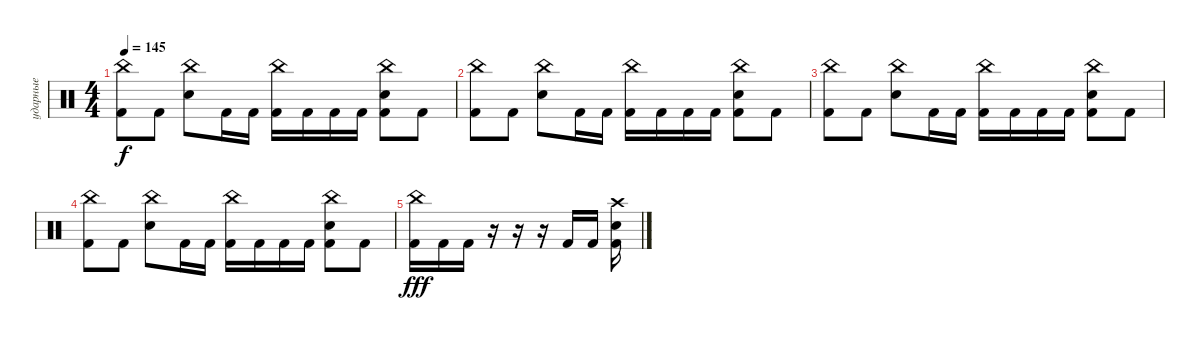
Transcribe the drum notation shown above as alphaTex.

\track (" ударные" " ударные") {instrument percussion}
\staff {score}
\articulation defaults
\ts (4 4)
\tempo 145
\clef neutral
\ks c
("China (hit)" "Kick (hit) 2").8{dy f} "Kick (hit) 2".8 ("China (hit)" "Electric Snare (hit)").8 "Kick (hit) 2".16 "Kick (hit) 2".16 ("China (hit)" "Kick (hit) 2").16 "Kick (hit) 2".16 "Kick (hit) 2".16 "Kick (hit) 2".16 ("China (hit)" "Electric Snare (hit)" "Kick (hit) 2").8 "Kick (hit) 2".8 |
("China (hit)" "Kick (hit) 2").8 "Kick (hit) 2".8 ("China (hit)" "Electric Snare (hit)").8 "Kick (hit) 2".16 "Kick (hit) 2".16 ("China (hit)" "Kick (hit) 2").16 "Kick (hit) 2".16 "Kick (hit) 2".16 "Kick (hit) 2".16 ("China (hit)" "Electric Snare (hit)" "Kick (hit) 2").8 "Kick (hit) 2".8 |
("China (hit)" "Kick (hit) 2").8 "Kick (hit) 2".8 ("China (hit)" "Electric Snare (hit)").8 "Kick (hit) 2".16 "Kick (hit) 2".16 ("China (hit)" "Kick (hit) 2").16 "Kick (hit) 2".16 "Kick (hit) 2".16 "Kick (hit) 2".16 ("China (hit)" "Electric Snare (hit)" "Kick (hit) 2").8 "Kick (hit) 2".8 |
("China (hit)" "Kick (hit) 2").8 "Kick (hit) 2".8 ("China (hit)" "Electric Snare (hit)").8 "Kick (hit) 2".16 "Kick (hit) 2".16 ("China (hit)" "Kick (hit) 2").16 "Kick (hit) 2".16 "Kick (hit) 2".16 "Kick (hit) 2".16 ("China (hit)" "Electric Snare (hit)" "Kick (hit) 2").8 "Kick (hit) 2".8 |
("China (hit)" "Kick (hit) 2").16{dy fff} "Kick (hit) 2".16 "Kick (hit) 2".16 r.16 r.16 r.16 "Kick (hit) 2".16 "Kick (hit) 2".16 ("Crash high (hit)" "Electric Snare (hit)" "Kick (hit) 2").16
